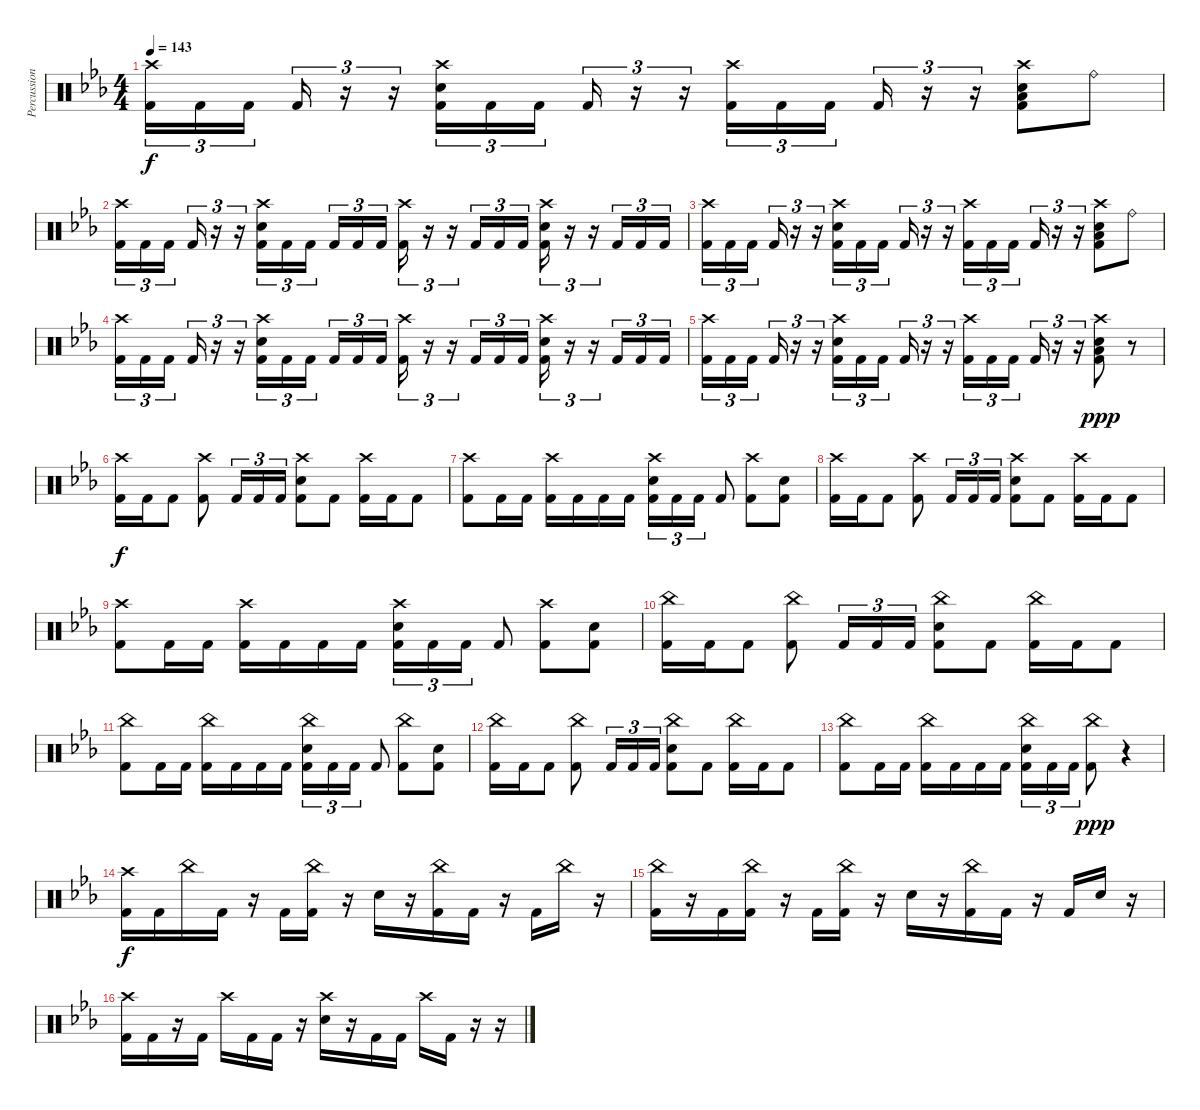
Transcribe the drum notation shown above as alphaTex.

\track ("Percussion" "Percussion") {instrument percussion}
\staff {score}
\articulation defaults
\ts (4 4)
\tempo 143
\clef neutral
\ks cminor
("Crash high (hit)" "Kick (hit) 2").16{tu (3 2) dy f} "Kick (hit) 2".16{tu (3 2)} "Kick (hit) 2".16{tu (3 2) beam splitsecondary} "Kick (hit) 2".16{tu (3 2)} r.16{tu (3 2)} r.16{tu (3 2)} ("Crash high (hit)" "Electric Snare (hit)" "Kick (hit) 2").16{tu (3 2)} "Kick (hit) 2".16{tu (3 2)} "Kick (hit) 2".16{tu (3 2) beam splitsecondary} "Kick (hit) 2".16{tu (3 2)} r.16{tu (3 2)} r.16{tu (3 2)} ("Crash high (hit)" "Kick (hit) 2").16{tu (3 2)} "Kick (hit) 2".16{tu (3 2)} "Kick (hit) 2".16{tu (3 2) beam splitsecondary} "Kick (hit) 2".16{tu (3 2)} r.16{tu (3 2)} r.16{tu (3 2)} ("Crash high (hit)" "Electric Snare (hit)" "Low Floor Tom (hit)" "Kick (hit) 2").8 "Ride (bell)".8 |
("Crash high (hit)" "Kick (hit) 2").16{tu (3 2)} "Kick (hit) 2".16{tu (3 2)} "Kick (hit) 2".16{tu (3 2) beam splitsecondary} "Kick (hit) 2".16{tu (3 2)} r.16{tu (3 2)} r.16{tu (3 2)} ("Crash high (hit)" "Electric Snare (hit)" "Kick (hit) 2").16{tu (3 2)} "Kick (hit) 2".16{tu (3 2)} "Kick (hit) 2".16{tu (3 2) beam splitsecondary} "Kick (hit) 2".16{tu (3 2)} "Kick (hit) 2".16{tu (3 2)} "Kick (hit) 2".16{tu (3 2)} ("Crash high (hit)" "Kick (hit) 2").16{tu (3 2)} r.16{tu (3 2)} r.16{tu (3 2)} "Kick (hit) 2".16{tu (3 2)} "Kick (hit) 2".16{tu (3 2)} "Kick (hit) 2".16{tu (3 2)} ("Crash high (hit)" "Electric Snare (hit)" "Kick (hit) 2").16{tu (3 2)} r.16{tu (3 2)} r.16{tu (3 2)} "Kick (hit) 2".16{tu (3 2)} "Kick (hit) 2".16{tu (3 2)} "Kick (hit) 2".16{tu (3 2)} |
("Crash high (hit)" "Kick (hit) 2").16{tu (3 2)} "Kick (hit) 2".16{tu (3 2)} "Kick (hit) 2".16{tu (3 2) beam splitsecondary} "Kick (hit) 2".16{tu (3 2)} r.16{tu (3 2)} r.16{tu (3 2)} ("Crash high (hit)" "Electric Snare (hit)" "Kick (hit) 2").16{tu (3 2)} "Kick (hit) 2".16{tu (3 2)} "Kick (hit) 2".16{tu (3 2) beam splitsecondary} "Kick (hit) 2".16{tu (3 2)} r.16{tu (3 2)} r.16{tu (3 2)} ("Crash high (hit)" "Kick (hit) 2").16{tu (3 2)} "Kick (hit) 2".16{tu (3 2)} "Kick (hit) 2".16{tu (3 2) beam splitsecondary} "Kick (hit) 2".16{tu (3 2)} r.16{tu (3 2)} r.16{tu (3 2)} ("Crash high (hit)" "Electric Snare (hit)" "Low Floor Tom (hit)" "Kick (hit) 2").8 "Ride (bell)".8 |
("Crash high (hit)" "Kick (hit) 2").16{tu (3 2)} "Kick (hit) 2".16{tu (3 2)} "Kick (hit) 2".16{tu (3 2) beam splitsecondary} "Kick (hit) 2".16{tu (3 2)} r.16{tu (3 2)} r.16{tu (3 2)} ("Crash high (hit)" "Electric Snare (hit)" "Kick (hit) 2").16{tu (3 2)} "Kick (hit) 2".16{tu (3 2)} "Kick (hit) 2".16{tu (3 2) beam splitsecondary} "Kick (hit) 2".16{tu (3 2)} "Kick (hit) 2".16{tu (3 2)} "Kick (hit) 2".16{tu (3 2)} ("Crash high (hit)" "Kick (hit) 2").16{tu (3 2)} r.16{tu (3 2)} r.16{tu (3 2)} "Kick (hit) 2".16{tu (3 2)} "Kick (hit) 2".16{tu (3 2)} "Kick (hit) 2".16{tu (3 2)} ("Crash high (hit)" "Electric Snare (hit)" "Kick (hit) 2").16{tu (3 2)} r.16{tu (3 2)} r.16{tu (3 2)} "Kick (hit) 2".16{tu (3 2)} "Kick (hit) 2".16{tu (3 2)} "Kick (hit) 2".16{tu (3 2)} |
("Crash high (hit)" "Kick (hit) 2").16{tu (3 2)} "Kick (hit) 2".16{tu (3 2)} "Kick (hit) 2".16{tu (3 2) beam splitsecondary} "Kick (hit) 2".16{tu (3 2)} r.16{tu (3 2)} r.16{tu (3 2)} ("Crash high (hit)" "Electric Snare (hit)" "Kick (hit) 2").16{tu (3 2)} "Kick (hit) 2".16{tu (3 2)} "Kick (hit) 2".16{tu (3 2) beam splitsecondary} "Kick (hit) 2".16{tu (3 2)} r.16{tu (3 2)} r.16{tu (3 2)} ("Crash high (hit)" "Kick (hit) 2").16{tu (3 2)} "Kick (hit) 2".16{tu (3 2)} "Kick (hit) 2".16{tu (3 2) beam splitsecondary} "Kick (hit) 2".16{tu (3 2)} r.16{tu (3 2)} r.16{tu (3 2)} ("Crash high (hit)" "Electric Snare (hit)" "Low Floor Tom (hit)" "Kick (hit) 2").8{dy ppp} r.8 |
("Crash high (hit)" "Kick (hit) 2").16{dy f} "Kick (hit) 2".16 "Kick (hit) 2".8 ("Crash high (hit)" "Kick (hit) 2").8 "Kick (hit) 2".16{tu (3 2)} "Kick (hit) 2".16{tu (3 2)} "Kick (hit) 2".16{tu (3 2)} ("Crash high (hit)" "Electric Snare (hit)" "Kick (hit) 2").8 "Kick (hit) 2".8 ("Crash high (hit)" "Kick (hit) 2").16 "Kick (hit) 2".16 "Kick (hit) 2".8 |
("Crash high (hit)" "Kick (hit) 2").8 "Kick (hit) 2".16 "Kick (hit) 2".16 ("Crash high (hit)" "Kick (hit) 2").16 "Kick (hit) 2".16 "Kick (hit) 2".16 "Kick (hit) 2".16 ("Crash high (hit)" "Electric Snare (hit)" "Kick (hit) 2").16{tu (3 2)} "Kick (hit) 2".16{tu (3 2)} "Kick (hit) 2".16{tu (3 2)} "Kick (hit) 2".8 ("Crash high (hit)" "Kick (hit) 2").8 ("Electric Snare (hit)" "Kick (hit) 2").8 |
("Crash high (hit)" "Kick (hit) 2").16 "Kick (hit) 2".16 "Kick (hit) 2".8 ("Crash high (hit)" "Kick (hit) 2").8 "Kick (hit) 2".16{tu (3 2)} "Kick (hit) 2".16{tu (3 2)} "Kick (hit) 2".16{tu (3 2)} ("Crash high (hit)" "Electric Snare (hit)" "Kick (hit) 2").8 "Kick (hit) 2".8 ("Crash high (hit)" "Kick (hit) 2").16 "Kick (hit) 2".16 "Kick (hit) 2".8 |
("Crash high (hit)" "Kick (hit) 2").8 "Kick (hit) 2".16 "Kick (hit) 2".16 ("Crash high (hit)" "Kick (hit) 2").16 "Kick (hit) 2".16 "Kick (hit) 2".16 "Kick (hit) 2".16 ("Crash high (hit)" "Electric Snare (hit)" "Kick (hit) 2").16{tu (3 2)} "Kick (hit) 2".16{tu (3 2)} "Kick (hit) 2".16{tu (3 2)} "Kick (hit) 2".8 ("Crash high (hit)" "Kick (hit) 2").8 ("Electric Snare (hit)" "Kick (hit) 2").8 |
("China (hit)" "Kick (hit) 2").16 "Kick (hit) 2".16 "Kick (hit) 2".8 ("China (hit)" "Kick (hit) 2").8 "Kick (hit) 2".16{tu (3 2)} "Kick (hit) 2".16{tu (3 2)} "Kick (hit) 2".16{tu (3 2)} ("China (hit)" "Electric Snare (hit)" "Kick (hit) 2").8 "Kick (hit) 2".8 ("China (hit)" "Kick (hit) 2").16 "Kick (hit) 2".16 "Kick (hit) 2".8 |
("China (hit)" "Kick (hit) 2").8 "Kick (hit) 2".16 "Kick (hit) 2".16 ("China (hit)" "Kick (hit) 2").16 "Kick (hit) 2".16 "Kick (hit) 2".16 "Kick (hit) 2".16 ("China (hit)" "Electric Snare (hit)" "Kick (hit) 2").16{tu (3 2)} "Kick (hit) 2".16{tu (3 2)} "Kick (hit) 2".16{tu (3 2)} "Kick (hit) 2".8 ("China (hit)" "Kick (hit) 2").8 ("Electric Snare (hit)" "Kick (hit) 2").8 |
("China (hit)" "Kick (hit) 2").16 "Kick (hit) 2".16 "Kick (hit) 2".8 ("China (hit)" "Kick (hit) 2").8 "Kick (hit) 2".16{tu (3 2)} "Kick (hit) 2".16{tu (3 2)} "Kick (hit) 2".16{tu (3 2)} ("China (hit)" "Electric Snare (hit)" "Kick (hit) 2").8 "Kick (hit) 2".8 ("China (hit)" "Kick (hit) 2").16 "Kick (hit) 2".16 "Kick (hit) 2".8 |
("China (hit)" "Kick (hit) 2").8 "Kick (hit) 2".16 "Kick (hit) 2".16 ("China (hit)" "Kick (hit) 2").16 "Kick (hit) 2".16 "Kick (hit) 2".16 "Kick (hit) 2".16 ("China (hit)" "Electric Snare (hit)" "Kick (hit) 2").16{tu (3 2)} "Kick (hit) 2".16{tu (3 2)} "Kick (hit) 2".16{tu (3 2)} ("China (hit)" "Kick (hit) 2").8{dy ppp} r.4 |
("Crash high (hit)" "Kick (hit) 2").16{dy f} "Kick (hit) 2".16 "China (hit)".16 "Kick (hit) 2".16 r.16 "Kick (hit) 2".16 ("China (hit)" "Kick (hit) 2").16 r.16 "Electric Snare (hit)".16 r.16 ("China (hit)" "Kick (hit) 2").16 "Kick (hit) 2".16 r.16 "Kick (hit) 2".16 "China (hit)".16 r.16 |
("China (hit)" "Kick (hit) 2").16 r.16 "Kick (hit) 2".16 ("China (hit)" "Kick (hit) 2").16 r.16 "Kick (hit) 2".16 ("China (hit)" "Kick (hit) 2").16 r.16 "Electric Snare (hit)".16 r.16 ("China (hit)" "Kick (hit) 2").16 "Kick (hit) 2".16 r.16 "Kick (hit) 2".16 "Electric Snare (hit)".16 r.16 |
("Crash high (hit)" "Kick (hit) 2").16 "Kick (hit) 2".16 r.16 "Kick (hit) 2".16 "Crash high (hit)".16 "Kick (hit) 2".16 "Kick (hit) 2".16 r.16 ("Crash high (hit)" "Electric Snare (hit)").16 r.16 "Kick (hit) 2".16 "Kick (hit) 2".16 "Crash high (hit)".16 "Kick (hit) 2".16 r.16 r.16
